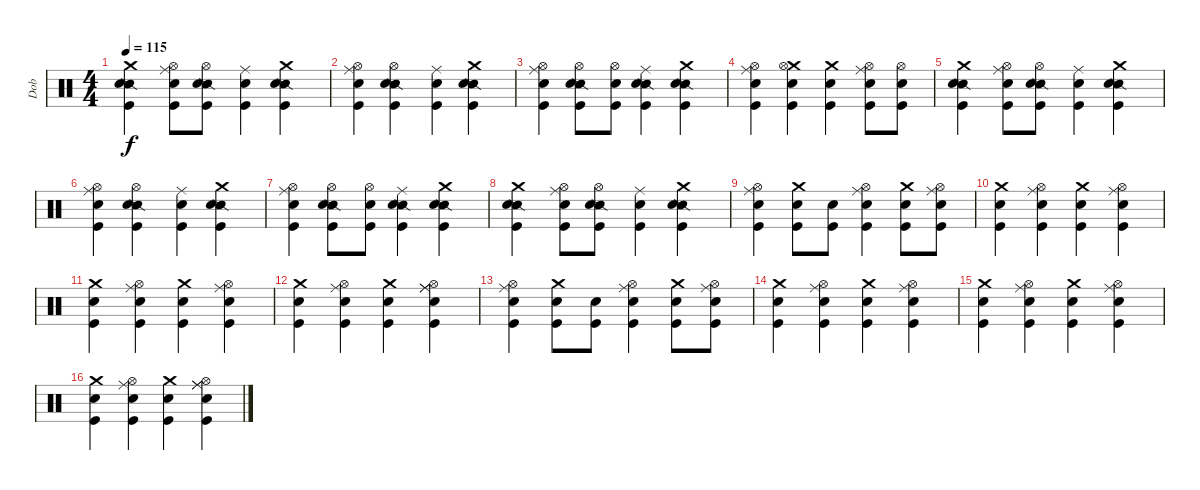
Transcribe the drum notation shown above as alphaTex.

\track ("Dob" "Dob") {instrument percussion}
\staff {score}
\articulation defaults
\ts (4 4)
\tempo 115
\clef neutral
\ks c
("Crash medium (hit)" "Snare (side stick) 2" "Snare (hit) 2" "Kick (hit)").4{dy f} ("Hi-Hat (open)" "Ride (middle)" "Snare (hit) 2" "Kick (hit)").8 ("Hi-Hat (open)" "Snare (side stick) 2" "Snare (hit) 2" "Kick (hit)").8 ("Ride (middle)" "Snare (hit) 2" "Kick (hit)").4 ("Crash medium (hit)" "Snare (side stick) 2" "Snare (hit) 2" "Kick (hit)").4 |
("Hi-Hat (open)" "Ride (middle)" "Snare (hit) 2" "Kick (hit)").4 ("Hi-Hat (open)" "Snare (side stick) 2" "Snare (hit) 2" "Kick (hit)").4 ("Ride (middle)" "Snare (hit) 2" "Kick (hit)").4 ("Crash medium (hit)" "Snare (side stick) 2" "Snare (hit) 2" "Kick (hit)").4 |
("Hi-Hat (open)" "Ride (middle)" "Snare (hit) 2" "Kick (hit)").4 ("Hi-Hat (open)" "Snare (side stick) 2" "Snare (hit) 2" "Kick (hit)").8 ("Hi-Hat (open)" "Snare (hit) 2" "Kick (hit)").8 ("Snare (side stick) 2" "Ride (middle)" "Snare (hit) 2" "Kick (hit)").4 ("Crash medium (hit)" "Snare (side stick) 2" "Snare (hit) 2" "Kick (hit)").4 |
("Hi-Hat (open)" "Ride (middle)" "Snare (hit) 2" "Kick (hit)").4 ("Crash medium (hit)" "Hi-Hat (open)" "Snare (hit) 2" "Kick (hit)").4 ("Crash medium (hit)" "Snare (hit) 2" "Kick (hit)").4 ("Hi-Hat (open)" "Ride (middle)" "Snare (hit) 2" "Kick (hit)").8 ("Hi-Hat (open)" "Snare (hit) 2" "Kick (hit)").8 |
("Crash medium (hit)" "Snare (side stick) 2" "Snare (hit) 2" "Kick (hit)").4 ("Hi-Hat (open)" "Ride (middle)" "Snare (hit) 2" "Kick (hit)").8 ("Hi-Hat (open)" "Snare (side stick) 2" "Snare (hit) 2" "Kick (hit)").8 ("Ride (middle)" "Snare (hit) 2" "Kick (hit)").4 ("Crash medium (hit)" "Snare (side stick) 2" "Snare (hit) 2" "Kick (hit)").4 |
("Hi-Hat (open)" "Ride (middle)" "Snare (hit) 2" "Kick (hit)").4 ("Hi-Hat (open)" "Snare (side stick) 2" "Snare (hit) 2" "Kick (hit)").4 ("Ride (middle)" "Snare (hit) 2" "Kick (hit)").4 ("Crash medium (hit)" "Snare (side stick) 2" "Snare (hit) 2" "Kick (hit)").4 |
("Hi-Hat (open)" "Ride (middle)" "Snare (hit) 2" "Kick (hit)").4 ("Hi-Hat (open)" "Snare (side stick) 2" "Snare (hit) 2" "Kick (hit)").8 ("Hi-Hat (open)" "Snare (hit) 2" "Kick (hit)").8 ("Snare (side stick) 2" "Ride (middle)" "Snare (hit) 2" "Kick (hit)").4 ("Crash medium (hit)" "Snare (side stick) 2" "Snare (hit) 2" "Kick (hit)").4 |
("Crash medium (hit)" "Snare (side stick) 2" "Snare (hit) 2" "Kick (hit)").4 ("Hi-Hat (open)" "Ride (middle)" "Snare (hit) 2" "Kick (hit)").8 ("Hi-Hat (open)" "Snare (side stick) 2" "Snare (hit) 2" "Kick (hit)").8 ("Ride (middle)" "Snare (hit) 2" "Kick (hit)").4 ("Crash medium (hit)" "Snare (side stick) 2" "Snare (hit) 2" "Kick (hit)").4 |
("Hi-Hat (open)" "Ride (middle)" "Snare (hit) 2" "Kick (hit)").4 ("Crash medium (hit)" "Snare (hit) 2" "Kick (hit)").8 ("Snare (hit) 2" "Kick (hit)").8 ("Hi-Hat (open)" "Ride (middle)" "Snare (hit) 2" "Kick (hit)").4 ("Crash medium (hit)" "Snare (hit) 2" "Kick (hit)").8 ("Hi-Hat (open)" "Ride (middle)" "Snare (hit) 2" "Kick (hit)").8 |
("Crash medium (hit)" "Snare (hit) 2" "Kick (hit)").4 ("Hi-Hat (open)" "Ride (middle)" "Snare (hit) 2" "Kick (hit)").4 ("Crash medium (hit)" "Snare (hit) 2" "Kick (hit)").4 ("Hi-Hat (open)" "Ride (middle)" "Snare (hit) 2" "Kick (hit)").4 |
("Crash medium (hit)" "Snare (hit) 2" "Kick (hit)").4 ("Hi-Hat (open)" "Ride (middle)" "Snare (hit) 2" "Kick (hit)").4 ("Crash medium (hit)" "Snare (hit) 2" "Kick (hit)").4 ("Hi-Hat (open)" "Ride (middle)" "Snare (hit) 2" "Kick (hit)").4 |
("Crash medium (hit)" "Snare (hit) 2" "Kick (hit)").4 ("Hi-Hat (open)" "Ride (middle)" "Snare (hit) 2" "Kick (hit)").4 ("Crash medium (hit)" "Snare (hit) 2" "Kick (hit)").4 ("Ride (middle)" "Hi-Hat (open)" "Ride (middle)" "Snare (hit) 2" "Kick (hit)").4 |
("Hi-Hat (open)" "Ride (middle)" "Snare (hit) 2" "Kick (hit)").4 ("Crash medium (hit)" "Snare (hit) 2" "Kick (hit)").8 ("Snare (hit) 2" "Kick (hit)").8 ("Hi-Hat (open)" "Ride (middle)" "Snare (hit) 2" "Kick (hit)").4 ("Crash medium (hit)" "Snare (hit) 2" "Kick (hit)").8 ("Hi-Hat (open)" "Ride (middle)" "Snare (hit) 2" "Kick (hit)").8 |
("Crash medium (hit)" "Snare (hit) 2" "Kick (hit)").4 ("Hi-Hat (open)" "Ride (middle)" "Snare (hit) 2" "Kick (hit)").4 ("Crash medium (hit)" "Snare (hit) 2" "Kick (hit)").4 ("Hi-Hat (open)" "Ride (middle)" "Snare (hit) 2" "Kick (hit)").4 |
("Crash medium (hit)" "Snare (hit) 2" "Kick (hit)").4 ("Hi-Hat (open)" "Ride (middle)" "Snare (hit) 2" "Kick (hit)").4 ("Crash medium (hit)" "Snare (hit) 2" "Kick (hit)").4 ("Hi-Hat (open)" "Ride (middle)" "Snare (hit) 2" "Kick (hit)").4 |
("Crash medium (hit)" "Snare (hit) 2" "Kick (hit)").4 ("Hi-Hat (open)" "Ride (middle)" "Snare (hit) 2" "Kick (hit)").4 ("Crash medium (hit)" "Snare (hit) 2" "Kick (hit)").4 ("Ride (middle)" "Hi-Hat (open)" "Ride (middle)" "Snare (hit) 2" "Kick (hit)").4
